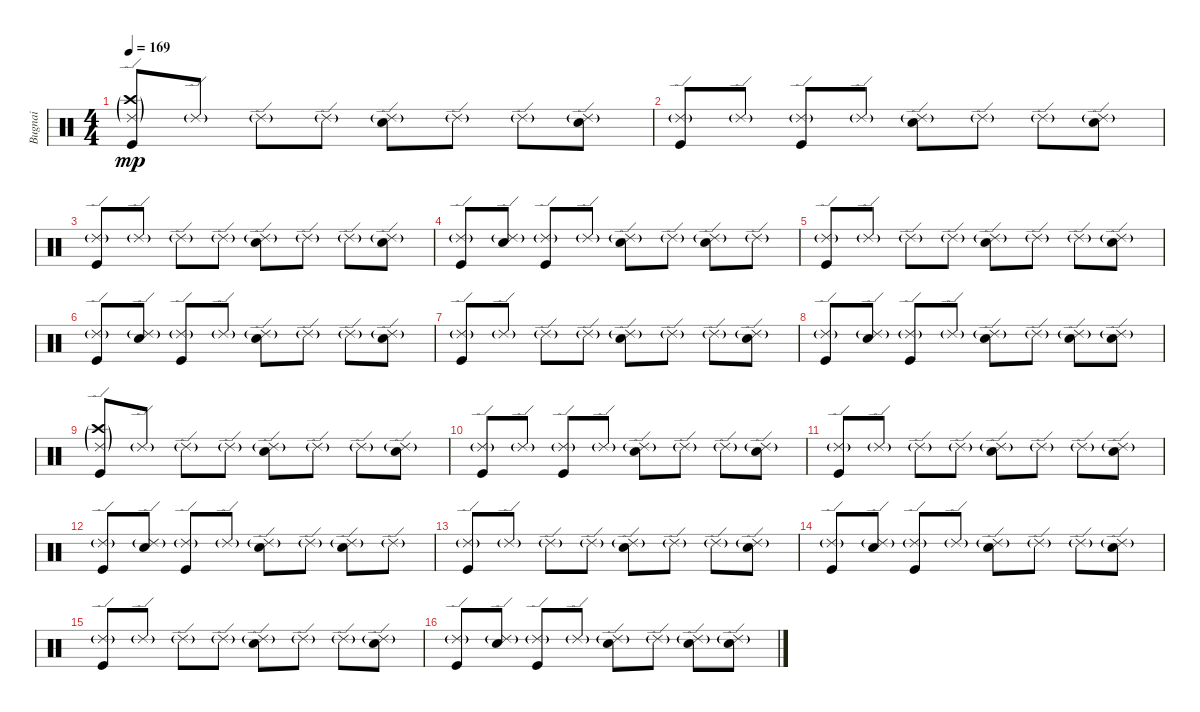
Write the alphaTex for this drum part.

\track ("Bugnai" "Bugnai") {instrument percussion}
\staff {score}
\articulation defaults
\ts (4 4)
\tempo 169
\clef neutral
\ks c
("Ride (edge) 2"{g} "Crash high (hit)"{g} "Kick (hit)").8{dy mp} "Ride (edge) 2"{g}.8 "Ride (edge) 2"{g}.8 "Ride (edge) 2"{g}.8 ("Ride (edge) 2"{g} "Snare (hit) 2").8 "Ride (edge) 2"{g}.8 "Ride (edge) 2"{g}.8 ("Ride (edge) 2"{g} "Snare (hit) 2").8 |
("Ride (edge) 2"{g} "Kick (hit)").8 "Ride (edge) 2"{g}.8 ("Ride (edge) 2"{g} "Kick (hit)").8 "Ride (edge) 2"{g}.8 ("Ride (edge) 2"{g} "Snare (hit) 2").8 "Ride (edge) 2"{g}.8 "Ride (edge) 2"{g}.8 ("Ride (edge) 2"{g} "Snare (hit) 2").8 |
("Ride (edge) 2"{g} "Kick (hit)").8 "Ride (edge) 2"{g}.8 "Ride (edge) 2"{g}.8 "Ride (edge) 2"{g}.8 ("Ride (edge) 2"{g} "Snare (hit) 2").8 "Ride (edge) 2"{g}.8 "Ride (edge) 2"{g}.8 ("Ride (edge) 2"{g} "Snare (hit) 2").8 |
("Ride (edge) 2"{g} "Kick (hit)").8 ("Ride (edge) 2"{g} "Snare (hit) 2").8 ("Ride (edge) 2"{g} "Kick (hit)").8 "Ride (edge) 2"{g}.8 ("Ride (edge) 2"{g} "Snare (hit) 2").8 "Ride (edge) 2"{g}.8 ("Ride (edge) 2"{g} "Snare (hit) 2").8 "Ride (edge) 2"{g}.8 |
("Ride (edge) 2"{g} "Kick (hit)").8 "Ride (edge) 2"{g}.8 "Ride (edge) 2"{g}.8 "Ride (edge) 2"{g}.8 ("Ride (edge) 2"{g} "Snare (hit) 2").8 "Ride (edge) 2"{g}.8 "Ride (edge) 2"{g}.8 ("Ride (edge) 2"{g} "Snare (hit) 2").8 |
("Ride (edge) 2"{g} "Kick (hit)").8 ("Ride (edge) 2"{g} "Snare (hit) 2").8 ("Ride (edge) 2"{g} "Kick (hit)").8 "Ride (edge) 2"{g}.8 ("Ride (edge) 2"{g} "Snare (hit) 2").8 "Ride (edge) 2"{g}.8 "Ride (edge) 2"{g}.8 ("Ride (edge) 2"{g} "Snare (hit) 2").8 |
("Ride (edge) 2"{g} "Kick (hit)").8 "Ride (edge) 2"{g}.8 "Ride (edge) 2"{g}.8 "Ride (edge) 2"{g}.8 ("Ride (edge) 2"{g} "Snare (hit) 2").8 "Ride (edge) 2"{g}.8 "Ride (edge) 2"{g}.8 ("Ride (edge) 2"{g} "Snare (hit) 2").8 |
("Ride (edge) 2"{g} "Kick (hit)").8 ("Ride (edge) 2"{g} "Snare (hit) 2").8 ("Ride (edge) 2"{g} "Kick (hit)").8 "Ride (edge) 2"{g}.8 ("Ride (edge) 2"{g} "Snare (hit) 2").8 "Ride (edge) 2"{g}.8 ("Ride (edge) 2"{g} "Snare (hit) 2").8 ("Ride (edge) 2"{g} "Snare (hit) 2").8 |
("Ride (edge) 2"{g} "Crash high (hit)"{g} "Kick (hit)").8 "Ride (edge) 2"{g}.8 "Ride (edge) 2"{g}.8 "Ride (edge) 2"{g}.8 ("Ride (edge) 2"{g} "Snare (hit) 2").8 "Ride (edge) 2"{g}.8 "Ride (edge) 2"{g}.8 ("Ride (edge) 2"{g} "Snare (hit) 2").8 |
("Ride (edge) 2"{g} "Kick (hit)").8 "Ride (edge) 2"{g}.8 ("Ride (edge) 2"{g} "Kick (hit)").8 "Ride (edge) 2"{g}.8 ("Ride (edge) 2"{g} "Snare (hit) 2").8 "Ride (edge) 2"{g}.8 "Ride (edge) 2"{g}.8 ("Ride (edge) 2"{g} "Snare (hit) 2").8 |
("Ride (edge) 2"{g} "Kick (hit)").8 "Ride (edge) 2"{g}.8 "Ride (edge) 2"{g}.8 "Ride (edge) 2"{g}.8 ("Ride (edge) 2"{g} "Snare (hit) 2").8 "Ride (edge) 2"{g}.8 "Ride (edge) 2"{g}.8 ("Ride (edge) 2"{g} "Snare (hit) 2").8 |
("Ride (edge) 2"{g} "Kick (hit)").8 ("Ride (edge) 2"{g} "Snare (hit) 2").8 ("Ride (edge) 2"{g} "Kick (hit)").8 "Ride (edge) 2"{g}.8 ("Ride (edge) 2"{g} "Snare (hit) 2").8 "Ride (edge) 2"{g}.8 ("Ride (edge) 2"{g} "Snare (hit) 2").8 "Ride (edge) 2"{g}.8 |
("Ride (edge) 2"{g} "Kick (hit)").8 "Ride (edge) 2"{g}.8 "Ride (edge) 2"{g}.8 "Ride (edge) 2"{g}.8 ("Ride (edge) 2"{g} "Snare (hit) 2").8 "Ride (edge) 2"{g}.8 "Ride (edge) 2"{g}.8 ("Ride (edge) 2"{g} "Snare (hit) 2").8 |
("Ride (edge) 2"{g} "Kick (hit)").8 ("Ride (edge) 2"{g} "Snare (hit) 2").8 ("Ride (edge) 2"{g} "Kick (hit)").8 "Ride (edge) 2"{g}.8 ("Ride (edge) 2"{g} "Snare (hit) 2").8 "Ride (edge) 2"{g}.8 "Ride (edge) 2"{g}.8 ("Ride (edge) 2"{g} "Snare (hit) 2").8 |
("Ride (edge) 2"{g} "Kick (hit)").8 "Ride (edge) 2"{g}.8 "Ride (edge) 2"{g}.8 "Ride (edge) 2"{g}.8 ("Ride (edge) 2"{g} "Snare (hit) 2").8 "Ride (edge) 2"{g}.8 "Ride (edge) 2"{g}.8 ("Ride (edge) 2"{g} "Snare (hit) 2").8 |
("Ride (edge) 2"{g} "Kick (hit)").8 ("Ride (edge) 2"{g} "Snare (hit) 2").8 ("Ride (edge) 2"{g} "Kick (hit)").8 "Ride (edge) 2"{g}.8 ("Ride (edge) 2"{g} "Snare (hit) 2").8 "Ride (edge) 2"{g}.8 ("Ride (edge) 2"{g} "Snare (hit) 2").8 ("Ride (edge) 2"{g} "Snare (hit) 2").8
